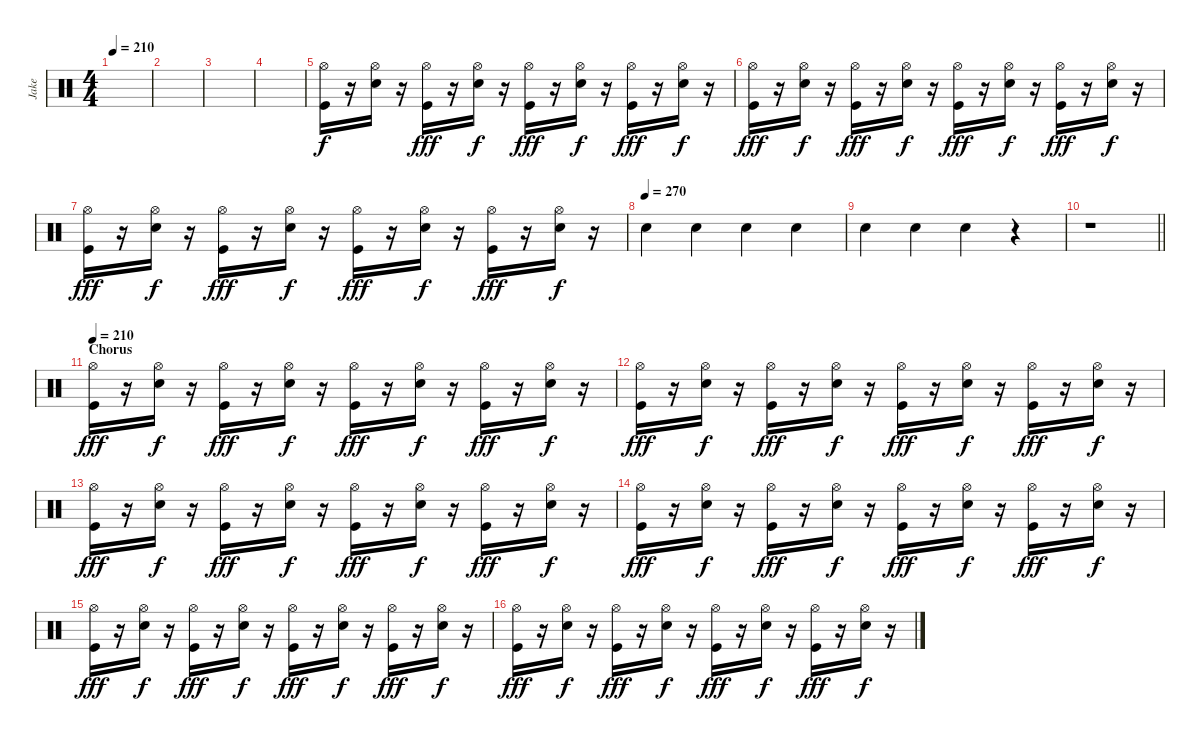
\track ("Jake" "Jake") {instrument percussion}
\staff {score}
\articulation defaults
\ts (4 4)
\tempo 210
\clef neutral
\ks c
|
|
|
|
("Hi-Hat (open)" "Kick (hit)").16{volume 12} r.16 ("Hi-Hat (open)" "Electric Snare (hit)").16{dy f} r.16 ("Hi-Hat (open)" "Kick (hit)").16{dy fff} r.16 ("Hi-Hat (open)" "Electric Snare (hit)").16{dy f} r.16 ("Hi-Hat (open)" "Kick (hit)").16{dy fff} r.16 ("Hi-Hat (open)" "Electric Snare (hit)").16{dy f} r.16 ("Hi-Hat (open)" "Kick (hit)").16{dy fff} r.16 ("Hi-Hat (open)" "Electric Snare (hit)").16{dy f} r.16 |
("Hi-Hat (open)" "Kick (hit)").16{dy fff} r.16 ("Hi-Hat (open)" "Electric Snare (hit)").16{dy f} r.16 ("Hi-Hat (open)" "Kick (hit)").16{dy fff} r.16 ("Hi-Hat (open)" "Electric Snare (hit)").16{dy f} r.16 ("Hi-Hat (open)" "Kick (hit)").16{dy fff} r.16 ("Hi-Hat (open)" "Electric Snare (hit)").16{dy f} r.16 ("Hi-Hat (open)" "Kick (hit)").16{dy fff} r.16 ("Hi-Hat (open)" "Electric Snare (hit)").16{dy f} r.16 |
("Hi-Hat (open)" "Kick (hit)").16{dy fff} r.16 ("Hi-Hat (open)" "Electric Snare (hit)").16{dy f} r.16 ("Hi-Hat (open)" "Kick (hit)").16{dy fff} r.16 ("Hi-Hat (open)" "Electric Snare (hit)").16{dy f} r.16 ("Hi-Hat (open)" "Kick (hit)").16{dy fff} r.16 ("Hi-Hat (open)" "Electric Snare (hit)").16{dy f} r.16 ("Hi-Hat (open)" "Kick (hit)").16{dy fff} r.16 ("Hi-Hat (open)" "Electric Snare (hit)").16{dy f} r.16 |
\tempo (270)
"Electric Snare (hit)".4 "Electric Snare (hit)".4 "Electric Snare (hit)".4 "Electric Snare (hit)".4 |
"Electric Snare (hit)".4 "Electric Snare (hit)".4 "Electric Snare (hit)".4 r.4 |
\barLineRight lightlight
r.1 |
\section ("" "Chorus")
\tempo 210
("Hi-Hat (open)" "Kick (hit)").16{dy fff} r.16 ("Hi-Hat (open)" "Electric Snare (hit)").16{dy f} r.16 ("Hi-Hat (open)" "Kick (hit)").16{dy fff} r.16 ("Hi-Hat (open)" "Electric Snare (hit)").16{dy f} r.16 ("Hi-Hat (open)" "Kick (hit)").16{dy fff} r.16 ("Hi-Hat (open)" "Electric Snare (hit)").16{dy f} r.16 ("Hi-Hat (open)" "Kick (hit)").16{dy fff} r.16 ("Hi-Hat (open)" "Electric Snare (hit)").16{dy f} r.16 |
("Hi-Hat (open)" "Kick (hit)").16{dy fff} r.16 ("Hi-Hat (open)" "Electric Snare (hit)").16{dy f} r.16 ("Hi-Hat (open)" "Kick (hit)").16{dy fff} r.16 ("Hi-Hat (open)" "Electric Snare (hit)").16{dy f} r.16 ("Hi-Hat (open)" "Kick (hit)").16{dy fff} r.16 ("Hi-Hat (open)" "Electric Snare (hit)").16{dy f} r.16 ("Hi-Hat (open)" "Kick (hit)").16{dy fff} r.16 ("Hi-Hat (open)" "Electric Snare (hit)").16{dy f} r.16 |
("Hi-Hat (open)" "Kick (hit)").16{dy fff} r.16 ("Hi-Hat (open)" "Electric Snare (hit)").16{dy f} r.16 ("Hi-Hat (open)" "Kick (hit)").16{dy fff} r.16 ("Hi-Hat (open)" "Electric Snare (hit)").16{dy f} r.16 ("Hi-Hat (open)" "Kick (hit)").16{dy fff} r.16 ("Hi-Hat (open)" "Electric Snare (hit)").16{dy f} r.16 ("Hi-Hat (open)" "Kick (hit)").16{dy fff} r.16 ("Hi-Hat (open)" "Electric Snare (hit)").16{dy f} r.16 |
("Hi-Hat (open)" "Kick (hit)").16{dy fff} r.16 ("Hi-Hat (open)" "Electric Snare (hit)").16{dy f} r.16 ("Hi-Hat (open)" "Kick (hit)").16{dy fff} r.16 ("Hi-Hat (open)" "Electric Snare (hit)").16{dy f} r.16 ("Hi-Hat (open)" "Kick (hit)").16{dy fff} r.16 ("Hi-Hat (open)" "Electric Snare (hit)").16{dy f} r.16 ("Hi-Hat (open)" "Kick (hit)").16{dy fff} r.16 ("Hi-Hat (open)" "Electric Snare (hit)").16{dy f} r.16 |
("Hi-Hat (open)" "Kick (hit)").16{dy fff} r.16 ("Hi-Hat (open)" "Electric Snare (hit)").16{dy f} r.16 ("Hi-Hat (open)" "Kick (hit)").16{dy fff} r.16 ("Hi-Hat (open)" "Electric Snare (hit)").16{dy f} r.16 ("Hi-Hat (open)" "Kick (hit)").16{dy fff} r.16 ("Hi-Hat (open)" "Electric Snare (hit)").16{dy f} r.16 ("Hi-Hat (open)" "Kick (hit)").16{dy fff} r.16 ("Hi-Hat (open)" "Electric Snare (hit)").16{dy f} r.16 |
("Hi-Hat (open)" "Kick (hit)").16{dy fff} r.16 ("Hi-Hat (open)" "Electric Snare (hit)").16{dy f} r.16 ("Hi-Hat (open)" "Kick (hit)").16{dy fff} r.16 ("Hi-Hat (open)" "Electric Snare (hit)").16{dy f} r.16 ("Hi-Hat (open)" "Kick (hit)").16{dy fff} r.16 ("Hi-Hat (open)" "Electric Snare (hit)").16{dy f} r.16 ("Hi-Hat (open)" "Kick (hit)").16{dy fff} r.16 ("Hi-Hat (open)" "Electric Snare (hit)").16{dy f} r.16
